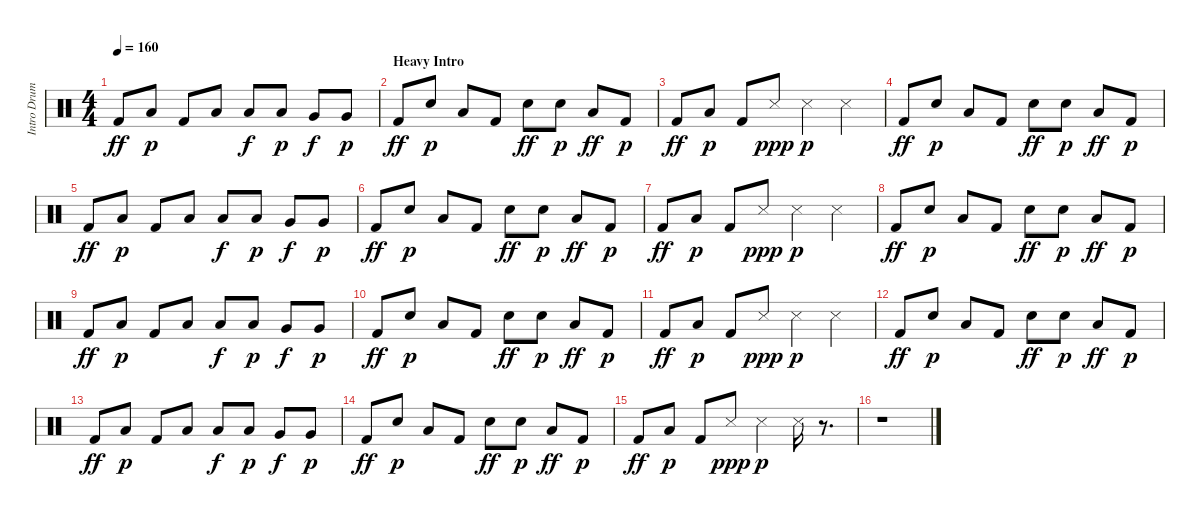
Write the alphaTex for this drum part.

\track ("Intro Drums" "Intro Drum") {instrument percussion}
\staff {score}
\articulation defaults
\ts (4 4)
\tempo 160
\clef neutral
\ks aminor "Kick (hit) 2".8{dy ff} "Low Floor Tom (hit)".8{dy p} "Kick (hit) 2".8 "Low Floor Tom (hit)".8 "Low Tom (hit)".8{dy f} "Low Tom (hit)".8{dy p} "Very Low Tom (hit)".8{dy f} "Very Low Tom (hit)".8{dy p}
|
\section ("" "Heavy Intro")
"Kick (hit) 2".8{dy ff} "Snare (hit) 2".8{dy p} "Low Floor Tom (hit)".8 "Kick (hit) 2".8 "Snare (hit) 2".8{dy ff} "Snare (hit) 2".8{dy p} "Low Floor Tom (hit)".8{dy ff} "Kick (hit) 2".8{dy p} |
"Kick (hit) 2".8{dy ff} "Low Floor Tom (hit)".8{dy p} "Kick (hit) 2".8 "Snare (side stick) 3".8{dy ppp} "Snare (side stick) 3".4{dy p} "Snare (side stick) 3".4 |
"Kick (hit) 2".8{dy ff} "Snare (hit) 2".8{dy p} "Low Floor Tom (hit)".8 "Kick (hit) 2".8 "Snare (hit) 2".8{dy ff} "Snare (hit) 2".8{dy p} "Low Floor Tom (hit)".8{dy ff} "Kick (hit) 2".8{dy p} |
"Kick (hit) 2".8{dy ff} "Low Floor Tom (hit)".8{dy p} "Kick (hit) 2".8 "Low Floor Tom (hit)".8 "Low Tom (hit)".8{dy f} "Low Tom (hit)".8{dy p} "Very Low Tom (hit)".8{dy f} "Very Low Tom (hit)".8{dy p} |
"Kick (hit) 2".8{dy ff} "Snare (hit) 2".8{dy p} "Low Floor Tom (hit)".8 "Kick (hit) 2".8 "Snare (hit) 2".8{dy ff} "Snare (hit) 2".8{dy p} "Low Floor Tom (hit)".8{dy ff} "Kick (hit) 2".8{dy p} |
"Kick (hit) 2".8{dy ff} "Low Floor Tom (hit)".8{dy p} "Kick (hit) 2".8 "Snare (side stick) 3".8{dy ppp} "Snare (side stick) 3".4{dy p} "Snare (side stick) 3".4 |
"Kick (hit) 2".8{dy ff} "Snare (hit) 2".8{dy p} "Low Floor Tom (hit)".8 "Kick (hit) 2".8 "Snare (hit) 2".8{dy ff} "Snare (hit) 2".8{dy p} "Low Floor Tom (hit)".8{dy ff} "Kick (hit) 2".8{dy p} |
"Kick (hit) 2".8{dy ff} "Low Floor Tom (hit)".8{dy p} "Kick (hit) 2".8 "Low Floor Tom (hit)".8 "Low Tom (hit)".8{dy f} "Low Tom (hit)".8{dy p} "Very Low Tom (hit)".8{dy f} "Very Low Tom (hit)".8{dy p} |
"Kick (hit) 2".8{dy ff} "Snare (hit) 2".8{dy p} "Low Floor Tom (hit)".8 "Kick (hit) 2".8 "Snare (hit) 2".8{dy ff} "Snare (hit) 2".8{dy p} "Low Floor Tom (hit)".8{dy ff} "Kick (hit) 2".8{dy p} |
"Kick (hit) 2".8{dy ff} "Low Floor Tom (hit)".8{dy p} "Kick (hit) 2".8 "Snare (side stick) 3".8{dy ppp} "Snare (side stick) 3".4{dy p} "Snare (side stick) 3".4 |
"Kick (hit) 2".8{dy ff} "Snare (hit) 2".8{dy p} "Low Floor Tom (hit)".8 "Kick (hit) 2".8 "Snare (hit) 2".8{dy ff} "Snare (hit) 2".8{dy p} "Low Floor Tom (hit)".8{dy ff} "Kick (hit) 2".8{dy p} |
"Kick (hit) 2".8{dy ff} "Low Floor Tom (hit)".8{dy p} "Kick (hit) 2".8 "Low Floor Tom (hit)".8 "Low Tom (hit)".8{dy f} "Low Tom (hit)".8{dy p} "Very Low Tom (hit)".8{dy f} "Very Low Tom (hit)".8{dy p} |
"Kick (hit) 2".8{dy ff} "Snare (hit) 2".8{dy p} "Low Floor Tom (hit)".8 "Kick (hit) 2".8 "Snare (hit) 2".8{dy ff} "Snare (hit) 2".8{dy p} "Low Floor Tom (hit)".8{dy ff} "Kick (hit) 2".8{dy p} |
"Kick (hit) 2".8{dy ff} "Low Floor Tom (hit)".8{dy p} "Kick (hit) 2".8 "Snare (side stick) 3".8{dy ppp} "Snare (side stick) 3".4{dy p} "Snare (side stick) 3".16 r.8{d} |
r.1
